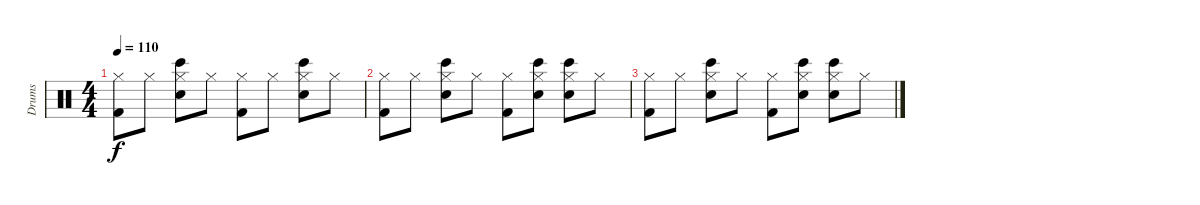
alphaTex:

\track ("Drums" "Drums") {instrument percussion}
\staff {score}
\articulation defaults
\ts (4 4)
\tempo 110
\clef neutral
\ks c
("Kick (hit) 2" "Hi-Hat (closed)").8{dy f} "Hi-Hat (closed)".8 ("Bongo High (hit)" "Snare (hit) 2" "Hi-Hat (closed)").8 "Hi-Hat (closed)".8 ("Kick (hit) 2" "Hi-Hat (closed)").8 "Hi-Hat (closed)".8 ("Bongo High (hit)" "Snare (hit) 2" "Hi-Hat (closed)").8 "Hi-Hat (closed)".8 |
("Kick (hit) 2" "Hi-Hat (closed)").8 "Hi-Hat (closed)".8 ("Bongo High (hit)" "Snare (hit) 2" "Hi-Hat (closed)").8 "Hi-Hat (closed)".8 ("Kick (hit) 2" "Hi-Hat (closed)").8 ("Bongo High (hit)" "Snare (hit) 2" "Hi-Hat (closed)").8 ("Bongo High (hit)" "Snare (hit) 2" "Hi-Hat (closed)").8 "Hi-Hat (closed)".8 |
("Kick (hit) 2" "Hi-Hat (closed)").8 "Hi-Hat (closed)".8 ("Bongo High (hit)" "Snare (hit) 2" "Hi-Hat (closed)").8 "Hi-Hat (closed)".8 ("Kick (hit) 2" "Hi-Hat (closed)").8 ("Bongo High (hit)" "Snare (hit) 2" "Hi-Hat (closed)").8 ("Bongo High (hit)" "Snare (hit) 2" "Hi-Hat (closed)").8 "Hi-Hat (closed)".8
